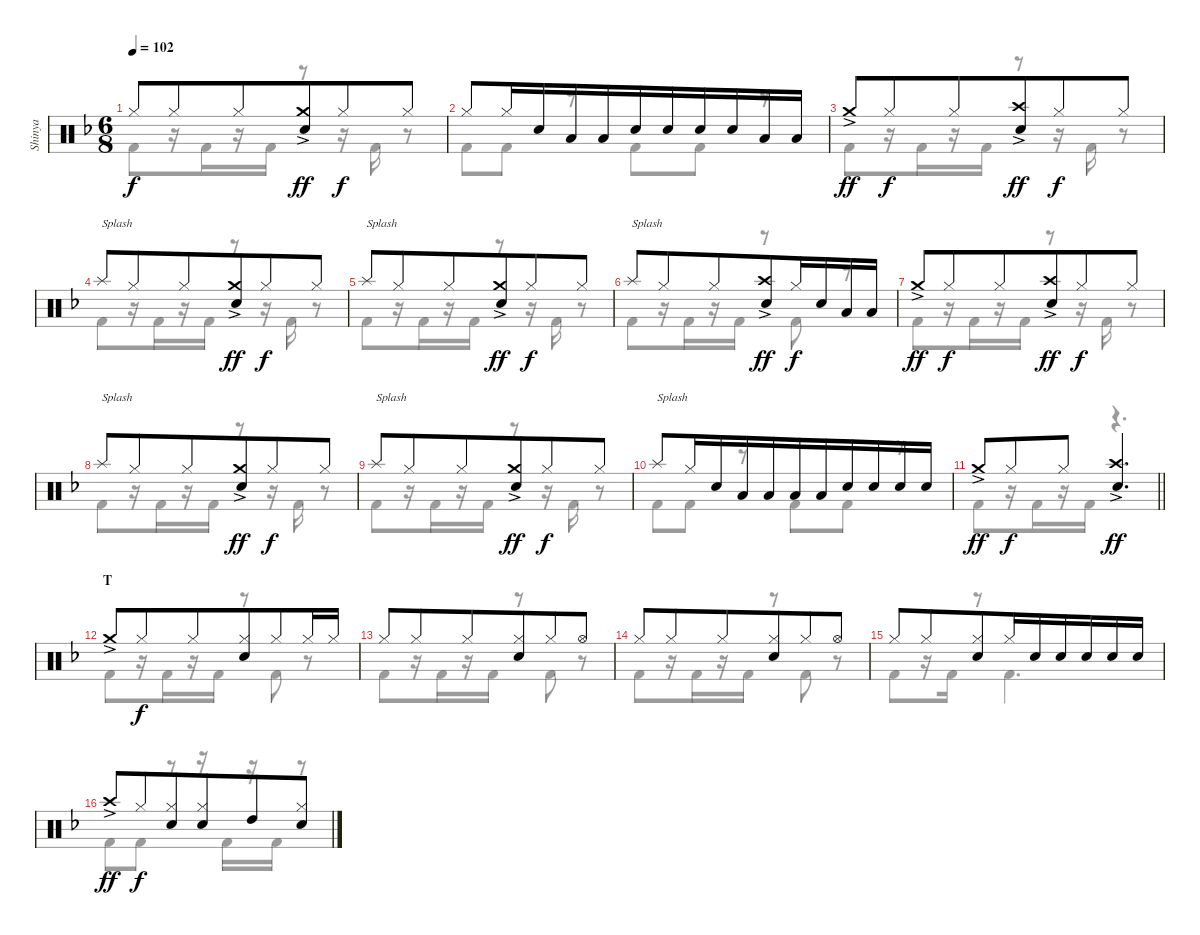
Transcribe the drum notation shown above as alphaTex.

\track ("Shinya" "Shinya") {mute instrument percussion}
\staff {score}
\articulation defaults
\voice
\ts (6 8)
\tempo 102
\clef neutral
\ks f "Hi-Hat (closed)".8{dy f} "Hi-Hat (closed)".8 "Hi-Hat (closed)".8{beam merge}
("Crash medium (hit)"{ac} "Snare (hit) 2").8{dy ff beam merge} "Hi-Hat (closed)".8{dy f} "Hi-Hat (closed)".8 |
"Hi-Hat (closed)".8 "Hi-Hat (closed)".16 "Snare (hit) 2".16{beam merge} "Low Tom (hit)".16{beam merge} "Low Tom (hit)".16{beam merge} "Snare (hit) 2".16{beam merge} "Snare (hit) 2".16 "Snare (hit) 2".16{beam merge} "Snare (hit) 2".16 "Low Tom (hit)".16{beam merge} "Low Tom (hit)".16 |
"Crash medium (hit)"{ac}.8{dy ff} "Hi-Hat (closed)".8{dy f} "Hi-Hat (closed)".8{beam merge} ("Crash high (hit)"{ac} "Snare (hit) 2").8{dy ff beam merge} "Hi-Hat (closed)".8{dy f} "Hi-Hat (closed)".8 |
"Splash (hit)".8{txt "Splash"} "Hi-Hat (closed)".8 "Hi-Hat (closed)".8{beam merge} ("Crash medium (hit)"{ac} "Snare (hit) 2").8{dy ff beam merge} "Hi-Hat (closed)".8{dy f} "Hi-Hat (closed)".8 |
"Splash (hit)".8{txt "Splash"} "Hi-Hat (closed)".8 "Hi-Hat (closed)".8{beam merge} ("Crash medium (hit)"{ac} "Snare (hit) 2").8{dy ff beam merge} "Hi-Hat (closed)".8{dy f} "Hi-Hat (closed)".8 |
"Splash (hit)".8{txt "Splash"} "Hi-Hat (closed)".8 "Hi-Hat (closed)".8{beam merge} ("Crash high (hit)"{ac} "Snare (hit) 2").8{dy ff beam merge} "Hi-Hat (closed)".16{dy f} "Snare (hit) 2".16 "Low Tom (hit)".16 "Low Tom (hit)".16 |
"Crash medium (hit)"{ac}.8{dy ff} "Hi-Hat (closed)".8{dy f} "Hi-Hat (closed)".8{beam merge} ("Crash high (hit)"{ac} "Snare (hit) 2").8{dy ff beam merge} "Hi-Hat (closed)".8{dy f} "Hi-Hat (closed)".8 |
"Splash (hit)".8{txt "Splash"} "Hi-Hat (closed)".8 "Hi-Hat (closed)".8{beam merge} ("Crash medium (hit)"{ac} "Snare (hit) 2").8{dy ff beam merge} "Hi-Hat (closed)".8{dy f} "Hi-Hat (closed)".8 |
"Splash (hit)".8{txt "Splash"} "Hi-Hat (closed)".8 "Hi-Hat (closed)".8{beam merge} ("Crash medium (hit)"{ac} "Snare (hit) 2").8{dy ff beam merge} "Hi-Hat (closed)".8{dy f} "Hi-Hat (closed)".8 |
"Splash (hit)".8{txt "Splash"} "Hi-Hat (closed)".16{beam merge} "Snare (hit) 2".16 "Low Tom (hit)".16 "Low Tom (hit)".16{beam merge} "Low Tom (hit)".16{beam merge} "Low Tom (hit)".16 "Snare (hit) 2".16{beam merge} "Snare (hit) 2".16 "Snare (hit) 2".16{beam merge} "Snare (hit) 2".16 |
\barLineRight lightlight "Crash medium (hit)"{ac}.8{dy ff} "Hi-Hat (closed)".8{dy f} "Hi-Hat (closed)".8{beam merge}
("Crash high (hit)"{ac} "Snare (hit) 2").4{d dy ff} |
\section ("" "T")
"Crash medium (hit)"{ac}.8 "Hi-Hat (closed)".8{dy f} "Hi-Hat (closed)".8{beam merge} ("Hi-Hat (closed)" "Snare (hit) 2").8{beam merge} "Hi-Hat (closed)".8 "Hi-Hat (closed)".16 "Hi-Hat (closed)".16 |
"Hi-Hat (closed)".8 "Hi-Hat (closed)".8 "Hi-Hat (closed)".8{beam merge} ("Hi-Hat (closed)" "Snare (hit) 2").8{beam merge} "Hi-Hat (closed)".8 "Hi-Hat (open)".8 |
"Hi-Hat (closed)".8 "Hi-Hat (closed)".8 "Hi-Hat (closed)".8{beam merge} ("Hi-Hat (closed)" "Snare (hit) 2").8{beam merge} "Hi-Hat (closed)".8 "Hi-Hat (open)".8 |
"Hi-Hat (closed)".8 "Hi-Hat (closed)".8 ("Hi-Hat (closed)" "Snare (hit) 2").8{beam merge} "Hi-Hat (closed)".16{beam merge} "Snare (hit) 2".16 "Snare (hit) 2".16 "Snare (hit) 2".16{beam merge} "Snare (hit) 2".16 "Snare (hit) 2".16 |
"Crash high (hit)"{ac}.8{dy ff} "Hi-Hat (closed)".8{dy f} ("Hi-Hat (closed)" "Snare (hit) 2").8{beam merge} ("Hi-Hat (closed)" "Snare (hit) 2").8{beam merge} "High Tom (hit)".8 ("Hi-Hat (closed)" "Snare (hit) 2").8
\voice
\clef neutral
\ottava regular
\simile none
\ks f "Kick (hit) 2".8{dy f}
r.16 "Kick (hit) 2".16{beam merge} r.16 "Kick (hit) 2".16 r.8{beam merge} r.16 "Kick (hit) 2".16 r.8 |
"Kick (hit) 2".8 "Kick (hit) 2".8 r.8 "Kick (hit) 2".8 "Kick (hit) 2".8 r.8 |
"Kick (hit) 2".8 r.16 "Kick (hit) 2".16{beam merge} r.16 "Kick (hit) 2".16 r.8{beam merge} r.16 "Kick (hit) 2".16 r.8 |
"Kick (hit) 2".8 r.16 "Kick (hit) 2".16{beam merge} r.16 "Kick (hit) 2".16 r.8{beam merge} r.16 "Kick (hit) 2".16 r.8 |
"Kick (hit) 2".8 r.16 "Kick (hit) 2".16{beam merge} r.16 "Kick (hit) 2".16 r.8{beam merge} r.16 "Kick (hit) 2".16 r.8 |
"Kick (hit) 2".8 r.16 "Kick (hit) 2".16{beam merge} r.16 "Kick (hit) 2".16 r.8 "Kick (hit) 2".8 r.8 |
"Kick (hit) 2".8 r.16 "Kick (hit) 2".16{beam merge} r.16 "Kick (hit) 2".16 r.8{beam merge} r.16 "Kick (hit) 2".16 r.8 |
"Kick (hit) 2".8 r.16 "Kick (hit) 2".16{beam merge} r.16 "Kick (hit) 2".16 r.8{beam merge} r.16 "Kick (hit) 2".16 r.8 |
"Kick (hit) 2".8 r.16 "Kick (hit) 2".16{beam merge} r.16 "Kick (hit) 2".16 r.8{beam merge} r.16 "Kick (hit) 2".16 r.8 |
"Kick (hit) 2".8 "Kick (hit) 2".8 r.8 "Kick (hit) 2".8 "Kick (hit) 2".8 r.8 |
\barLineRight lightlight "Kick (hit) 2".8
r.16 "Kick (hit) 2".16{beam merge} r.16 "Kick (hit) 2".16 r.4{d} |
"Kick (hit) 2".8 r.16 "Kick (hit) 2".16{beam merge} r.16 "Kick (hit) 2".16 r.8 "Kick (hit) 2".8 r.8 |
"Kick (hit) 2".8 r.16 "Kick (hit) 2".16{beam merge} r.16 "Kick (hit) 2".16 r.8 "Kick (hit) 2".8 r.8 |
"Kick (hit) 2".8 r.16 "Kick (hit) 2".16{beam merge} r.16 "Kick (hit) 2".16 r.8 "Kick (hit) 2".8 r.8 |
"Kick (hit) 2".8 r.16 "Kick (hit) 2".16 r.8 "Kick (hit) 2".4{d} |
"Kick (hit) 2".8 "Kick (hit) 2".8 r.8 r.16{beam merge} "Kick (hit) 2".16{beam merge} r.16 "Kick (hit) 2".16 r.8
